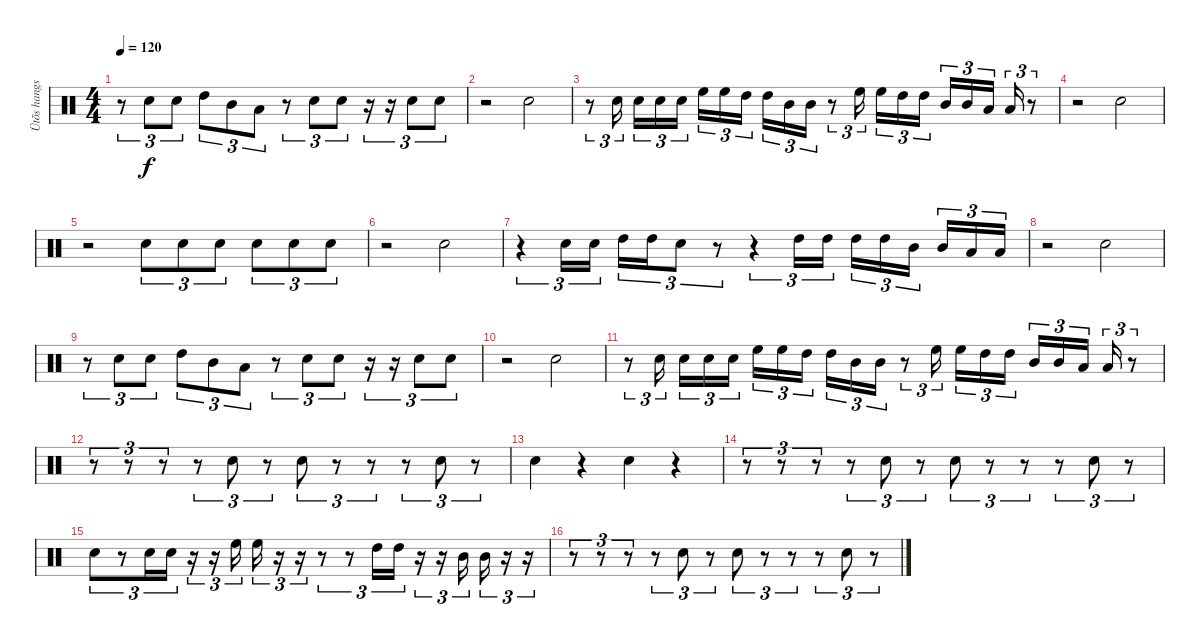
\track ("Ütõs hangszer" "Ütõs hangs") {instrument percussion}
\staff {score}
\articulation defaults
\ts (4 4)
\tempo 120
\clef neutral
\ks c
r.8{tu (3 2) dy f} "Electric Snare (hit)".8{tu (3 2)} "Electric Snare (hit)".8{tu (3 2)} "High Tom (hit)".8{tu (3 2)} "Mid Tom (hit)".8{tu (3 2)} "Low Tom (hit)".8{tu (3 2)} r.8{tu (3 2)} "Electric Snare (hit)".8{tu (3 2)} "Electric Snare (hit)".8{tu (3 2)} r.16{tu (3 2)} r.16{tu (3 2)} "Electric Snare (hit)".8{tu (3 2)} "Electric Snare (hit)".8{tu (3 2)} |
r.2 "Electric Snare (hit)".2 |
r.8{tu (3 2)} "Electric Snare (hit)".16{tu (3 2)} "Electric Snare (hit)".16{tu (3 2)} "Electric Snare (hit)".16{tu (3 2)} "Electric Snare (hit)".16{tu (3 2)} "High Floor Tom (hit)".16{tu (3 2)} "High Floor Tom (hit)".16{tu (3 2)} "High Tom (hit)".16{tu (3 2)} "High Tom (hit)".16{tu (3 2)} "Mid Tom (hit)".16{tu (3 2)} "Mid Tom (hit)".16{tu (3 2)} r.8{tu (3 2)} "High Floor Tom (hit)".16{tu (3 2)} "High Floor Tom (hit)".16{tu (3 2)} "High Tom (hit)".16{tu (3 2)} "High Tom (hit)".16{tu (3 2)} "Mid Tom (hit)".16{tu (3 2)} "Mid Tom (hit)".16{tu (3 2)} "Low Tom (hit)".16{tu (3 2)} "Low Tom (hit)".16{tu (3 2)} r.8{tu (3 2)} |
r.2 "Electric Snare (hit)".2 |
r.2 "Electric Snare (hit)".8{tu (3 2)} "Electric Snare (hit)".8{tu (3 2)} "Electric Snare (hit)".8{tu (3 2)} "Electric Snare (hit)".8{tu (3 2)} "Electric Snare (hit)".8{tu (3 2)} "Electric Snare (hit)".8{tu (3 2)} |
r.2 "Electric Snare (hit)".2 |
r.4{tu (3 2)} "Electric Snare (hit)".16{tu (3 2)} "Electric Snare (hit)".16{tu (3 2)} "High Tom (hit)".16{tu (3 2)} "High Tom (hit)".16{tu (3 2)} "Electric Snare (hit)".8{tu (3 2)} r.8{tu (3 2)} r.4{tu (3 2)} "High Tom (hit)".16{tu (3 2)} "High Tom (hit)".16{tu (3 2)} "High Tom (hit)".16{tu (3 2)} "High Tom (hit)".16{tu (3 2)} "Mid Tom (hit)".16{tu (3 2)} "Mid Tom (hit)".16{tu (3 2)} "Low Tom (hit)".16{tu (3 2)} "Low Tom (hit)".16{tu (3 2)} |
r.2 "Electric Snare (hit)".2 |
r.8{tu (3 2)} "Electric Snare (hit)".8{tu (3 2)} "Electric Snare (hit)".8{tu (3 2)} "High Tom (hit)".8{tu (3 2)} "Mid Tom (hit)".8{tu (3 2)} "Low Tom (hit)".8{tu (3 2)} r.8{tu (3 2)} "Electric Snare (hit)".8{tu (3 2)} "Electric Snare (hit)".8{tu (3 2)} r.16{tu (3 2)} r.16{tu (3 2)} "Electric Snare (hit)".8{tu (3 2)} "Electric Snare (hit)".8{tu (3 2)} |
r.2 "Electric Snare (hit)".2 |
r.8{tu (3 2)} "Electric Snare (hit)".16{tu (3 2)} "Electric Snare (hit)".16{tu (3 2)} "Electric Snare (hit)".16{tu (3 2)} "Electric Snare (hit)".16{tu (3 2)} "High Floor Tom (hit)".16{tu (3 2)} "High Floor Tom (hit)".16{tu (3 2)} "High Tom (hit)".16{tu (3 2)} "High Tom (hit)".16{tu (3 2)} "Mid Tom (hit)".16{tu (3 2)} "Mid Tom (hit)".16{tu (3 2)} r.8{tu (3 2)} "High Floor Tom (hit)".16{tu (3 2)} "High Floor Tom (hit)".16{tu (3 2)} "High Tom (hit)".16{tu (3 2)} "High Tom (hit)".16{tu (3 2)} "Mid Tom (hit)".16{tu (3 2)} "Mid Tom (hit)".16{tu (3 2)} "Low Tom (hit)".16{tu (3 2)} "Low Tom (hit)".16{tu (3 2)} r.8{tu (3 2)} |
r.8{tu (3 2)} r.8{tu (3 2)} r.8{tu (3 2)} r.8{tu (3 2)} "Electric Snare (hit)".8{tu (3 2)} r.8{tu (3 2)} "Electric Snare (hit)".8{tu (3 2)} r.8{tu (3 2)} r.8{tu (3 2)} r.8{tu (3 2)} "Electric Snare (hit)".8{tu (3 2)} r.8{tu (3 2)} |
"Electric Snare (hit)".4 r.4 "Electric Snare (hit)".4 r.4 |
r.8{tu (3 2)} r.8{tu (3 2)} r.8{tu (3 2)} r.8{tu (3 2)} "Electric Snare (hit)".8{tu (3 2)} r.8{tu (3 2)} "Electric Snare (hit)".8{tu (3 2)} r.8{tu (3 2)} r.8{tu (3 2)} r.8{tu (3 2)} "Electric Snare (hit)".8{tu (3 2)} r.8{tu (3 2)} |
"Electric Snare (hit)".8{tu (3 2)} r.8{tu (3 2)} "Electric Snare (hit)".16{tu (3 2)} "Electric Snare (hit)".16{tu (3 2)} r.16{tu (3 2)} r.16{tu (3 2)} "High Floor Tom (hit)".16{tu (3 2)} "High Floor Tom (hit)".16{tu (3 2)} r.16{tu (3 2)} r.16{tu (3 2)} r.8{tu (3 2)} r.8{tu (3 2)} "High Tom (hit)".16{tu (3 2)} "High Tom (hit)".16{tu (3 2)} r.16{tu (3 2)} r.16{tu (3 2)} "Mid Tom (hit)".16{tu (3 2)} "Mid Tom (hit)".16{tu (3 2)} r.16{tu (3 2)} r.16{tu (3 2)} |
r.8{tu (3 2)} r.8{tu (3 2)} r.8{tu (3 2)} r.8{tu (3 2)} "Electric Snare (hit)".8{tu (3 2)} r.8{tu (3 2)} "Electric Snare (hit)".8{tu (3 2)} r.8{tu (3 2)} r.8{tu (3 2)} r.8{tu (3 2)} "Electric Snare (hit)".8{tu (3 2)} r.8{tu (3 2)}
